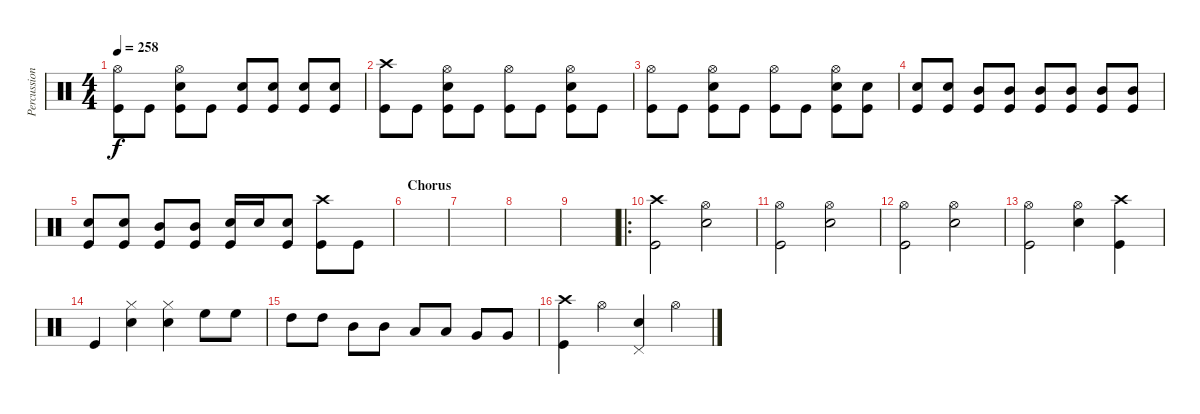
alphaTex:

\track ("Percussion" "Percussion") {instrument percussion}
\staff {score}
\articulation defaults
\ts (4 4)
\tempo 258
\clef neutral
\ks c
("Hi-Hat (open)" "Kick (hit)").8{dy f} "Kick (hit)".8 ("Snare (hit) 2" "Hi-Hat (open)" "Kick (hit)").8 "Kick (hit)".8 ("Snare (hit) 2" "Kick (hit)").8 ("Snare (hit) 2" "Kick (hit)").8 ("Snare (hit) 2" "Kick (hit)").8 ("Snare (hit) 2" "Kick (hit)").8 |
("Crash high (hit)" "Kick (hit)").8 "Kick (hit)".8 ("Snare (hit) 2" "Hi-Hat (open)" "Kick (hit)").8 "Kick (hit)".8 ("Hi-Hat (open)" "Kick (hit)").8 "Kick (hit)".8 ("Snare (hit) 2" "Hi-Hat (open)" "Kick (hit)").8 "Kick (hit)".8 |
("Hi-Hat (open)" "Kick (hit)").8 "Kick (hit)".8 ("Snare (hit) 2" "Hi-Hat (open)" "Kick (hit)").8 "Kick (hit)".8 ("Hi-Hat (open)" "Kick (hit)").8 "Kick (hit)".8 ("Snare (hit) 2" "Hi-Hat (open)" "Kick (hit)").8 ("Snare (hit) 2" "Kick (hit)").8 |
("Snare (hit) 2" "Kick (hit)").8 ("Snare (hit) 2" "Kick (hit)").8 ("Mid Tom (hit)" "Kick (hit)").8 ("Mid Tom (hit)" "Kick (hit)").8 ("Mid Tom (hit)" "Kick (hit)").8 ("Mid Tom (hit)" "Kick (hit)").8 ("Mid Tom (hit)" "Kick (hit)").8 ("Mid Tom (hit)" "Kick (hit)").8 |
("Snare (hit) 2" "Kick (hit)").8 ("Snare (hit) 2" "Kick (hit)").8 ("Mid Tom (hit)" "Kick (hit)").8 ("Mid Tom (hit)" "Kick (hit)").8 ("Snare (hit) 2" "Kick (hit)").16 "Snare (hit) 2".16 ("Snare (hit) 2" "Kick (hit)").8 ("Crash high (hit)" "Kick (hit)").8 "Kick (hit)".8 |
\section ("" "Chorus")
|
|
|
|
\ro
("Crash high (hit)" "Kick (hit)").2 ("Snare (hit) 2" "Hi-Hat (open)").2 |
("Hi-Hat (open)" "Kick (hit)").2 ("Snare (hit) 2" "Hi-Hat (open)").2 |
("Hi-Hat (open)" "Kick (hit)").2 ("Snare (hit) 2" "Hi-Hat (open)").2 |
("Hi-Hat (open)" "Kick (hit)").2 ("Snare (hit) 2" "Hi-Hat (open)").4 ("Crash high (hit)" "Kick (hit)").4 |
"Kick (hit)".4 ("Snare (hit) 2" "Hi-Hat (closed)").4 ("Snare (hit) 2" "Hi-Hat (closed)").4 "High Floor Tom (hit)".8 "High Floor Tom (hit)".8 |
"High Tom (hit)".8 "High Tom (hit)".8 "Mid Tom (hit)".8 "Mid Tom (hit)".8 "Low Tom (hit)".8 "Low Tom (hit)".8 "Very Low Tom (hit)".8 "Very Low Tom (hit)".8 |
("Crash high (hit)" "Kick (hit)").4 "Hi-Hat (open)".4 ("Snare (hit) 2" "Pedal Hi-Hat (hit)").4 "Hi-Hat (open)".4
